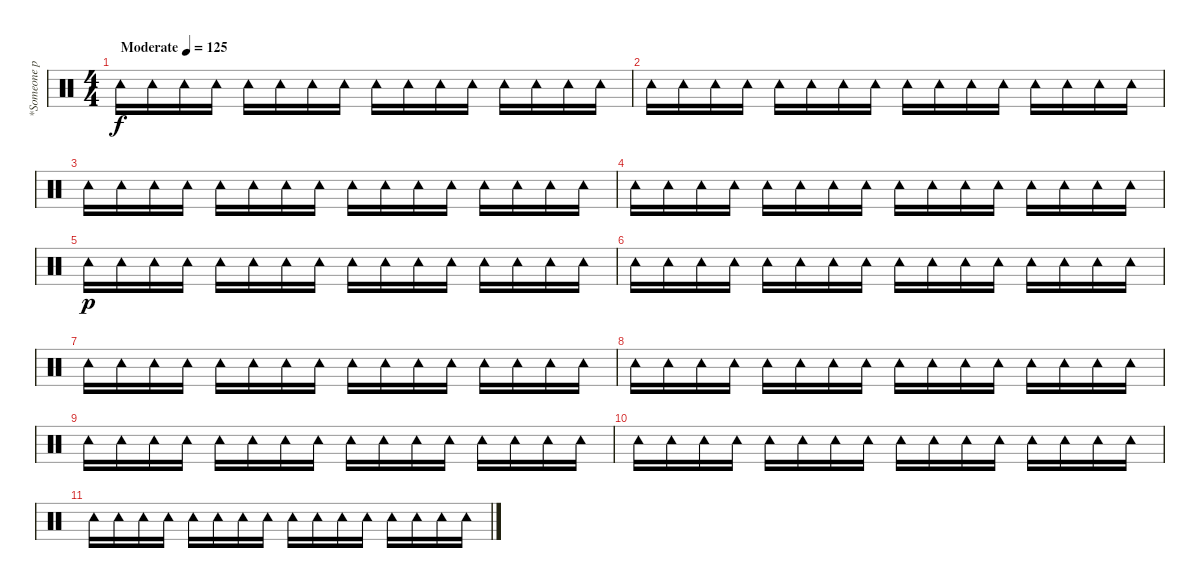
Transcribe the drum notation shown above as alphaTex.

\track ("*Someone play the tambourine" "*Someone p") {instrument percussion}
\staff {score}
\articulation defaults
\ts (4 4)
\tempo (125 "Moderate")
\clef neutral
\ks c "Tambourine (hit)".16{dy f} "Tambourine (hit)".16 "Tambourine (hit)".16 "Tambourine (hit)".16 "Tambourine (hit)".16 "Tambourine (hit)".16 "Tambourine (hit)".16 "Tambourine (hit)".16 "Tambourine (hit)".16 "Tambourine (hit)".16 "Tambourine (hit)".16 "Tambourine (hit)".16 "Tambourine (hit)".16 "Tambourine (hit)".16 "Tambourine (hit)".16 "Tambourine (hit)".16
|
"Tambourine (hit)".16 "Tambourine (hit)".16 "Tambourine (hit)".16 "Tambourine (hit)".16 "Tambourine (hit)".16 "Tambourine (hit)".16 "Tambourine (hit)".16 "Tambourine (hit)".16 "Tambourine (hit)".16 "Tambourine (hit)".16 "Tambourine (hit)".16 "Tambourine (hit)".16 "Tambourine (hit)".16 "Tambourine (hit)".16 "Tambourine (hit)".16 "Tambourine (hit)".16 |
"Tambourine (hit)".16 "Tambourine (hit)".16 "Tambourine (hit)".16 "Tambourine (hit)".16 "Tambourine (hit)".16 "Tambourine (hit)".16 "Tambourine (hit)".16 "Tambourine (hit)".16 "Tambourine (hit)".16 "Tambourine (hit)".16 "Tambourine (hit)".16 "Tambourine (hit)".16 "Tambourine (hit)".16 "Tambourine (hit)".16 "Tambourine (hit)".16 "Tambourine (hit)".16 |
"Tambourine (hit)".16 "Tambourine (hit)".16 "Tambourine (hit)".16 "Tambourine (hit)".16 "Tambourine (hit)".16 "Tambourine (hit)".16 "Tambourine (hit)".16 "Tambourine (hit)".16 "Tambourine (hit)".16 "Tambourine (hit)".16 "Tambourine (hit)".16 "Tambourine (hit)".16 "Tambourine (hit)".16 "Tambourine (hit)".16 "Tambourine (hit)".16 "Tambourine (hit)".16 |
"Tambourine (hit)".16{dy p} "Tambourine (hit)".16 "Tambourine (hit)".16 "Tambourine (hit)".16 "Tambourine (hit)".16 "Tambourine (hit)".16 "Tambourine (hit)".16 "Tambourine (hit)".16 "Tambourine (hit)".16 "Tambourine (hit)".16 "Tambourine (hit)".16 "Tambourine (hit)".16 "Tambourine (hit)".16 "Tambourine (hit)".16 "Tambourine (hit)".16 "Tambourine (hit)".16 |
"Tambourine (hit)".16 "Tambourine (hit)".16 "Tambourine (hit)".16 "Tambourine (hit)".16 "Tambourine (hit)".16 "Tambourine (hit)".16 "Tambourine (hit)".16 "Tambourine (hit)".16 "Tambourine (hit)".16 "Tambourine (hit)".16 "Tambourine (hit)".16 "Tambourine (hit)".16 "Tambourine (hit)".16 "Tambourine (hit)".16 "Tambourine (hit)".16 "Tambourine (hit)".16 |
"Tambourine (hit)".16 "Tambourine (hit)".16 "Tambourine (hit)".16 "Tambourine (hit)".16 "Tambourine (hit)".16 "Tambourine (hit)".16 "Tambourine (hit)".16 "Tambourine (hit)".16 "Tambourine (hit)".16 "Tambourine (hit)".16 "Tambourine (hit)".16 "Tambourine (hit)".16 "Tambourine (hit)".16 "Tambourine (hit)".16 "Tambourine (hit)".16 "Tambourine (hit)".16 |
"Tambourine (hit)".16 "Tambourine (hit)".16 "Tambourine (hit)".16 "Tambourine (hit)".16 "Tambourine (hit)".16 "Tambourine (hit)".16 "Tambourine (hit)".16 "Tambourine (hit)".16 "Tambourine (hit)".16 "Tambourine (hit)".16 "Tambourine (hit)".16 "Tambourine (hit)".16 "Tambourine (hit)".16 "Tambourine (hit)".16 "Tambourine (hit)".16 "Tambourine (hit)".16 |
"Tambourine (hit)".16 "Tambourine (hit)".16 "Tambourine (hit)".16 "Tambourine (hit)".16 "Tambourine (hit)".16 "Tambourine (hit)".16 "Tambourine (hit)".16 "Tambourine (hit)".16 "Tambourine (hit)".16 "Tambourine (hit)".16 "Tambourine (hit)".16 "Tambourine (hit)".16 "Tambourine (hit)".16 "Tambourine (hit)".16 "Tambourine (hit)".16 "Tambourine (hit)".16 |
"Tambourine (hit)".16 "Tambourine (hit)".16 "Tambourine (hit)".16 "Tambourine (hit)".16 "Tambourine (hit)".16 "Tambourine (hit)".16 "Tambourine (hit)".16 "Tambourine (hit)".16 "Tambourine (hit)".16 "Tambourine (hit)".16 "Tambourine (hit)".16 "Tambourine (hit)".16 "Tambourine (hit)".16 "Tambourine (hit)".16 "Tambourine (hit)".16 "Tambourine (hit)".16 |
"Tambourine (hit)".16 "Tambourine (hit)".16 "Tambourine (hit)".16 "Tambourine (hit)".16 "Tambourine (hit)".16 "Tambourine (hit)".16 "Tambourine (hit)".16 "Tambourine (hit)".16 "Tambourine (hit)".16 "Tambourine (hit)".16 "Tambourine (hit)".16 "Tambourine (hit)".16 "Tambourine (hit)".16 "Tambourine (hit)".16 "Tambourine (hit)".16 "Tambourine (hit)".16
